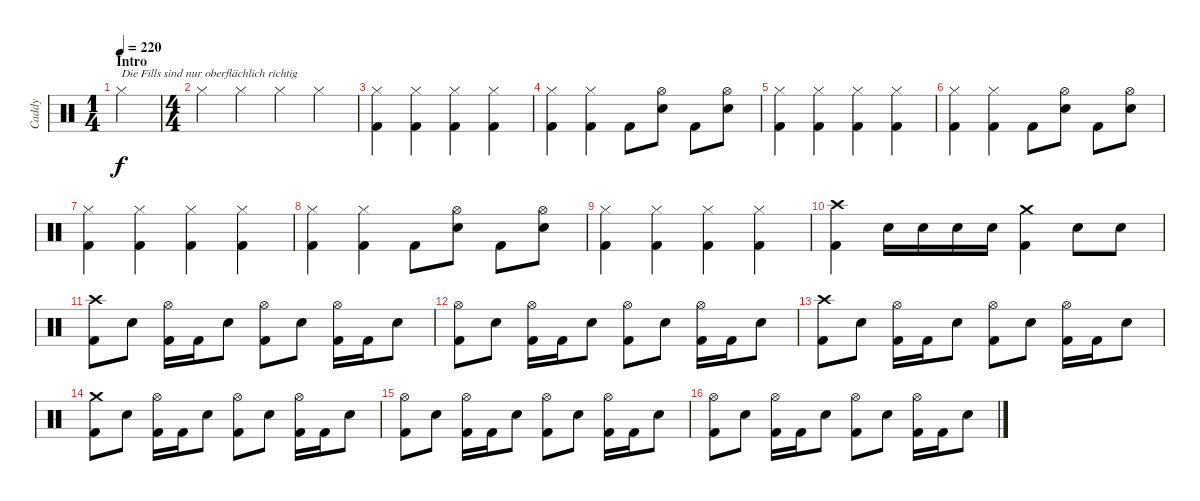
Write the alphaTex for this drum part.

\track ("Caddy" "Caddy") {instrument percussion}
\staff {score}
\articulation defaults
\ts (1 4)
\section ("" "Intro")
\tempo 220
\clef neutral
\ks c "Hi-Hat (closed)".4{txt "Die Fills sind nur oberflächlich richtig" dy f}
|
\ts (4 4)
"Hi-Hat (closed)".4 "Hi-Hat (closed)".4 "Hi-Hat (closed)".4 "Hi-Hat (closed)".4 |
("Hi-Hat (closed)" "Kick (hit) 2").4 ("Hi-Hat (closed)" "Kick (hit) 2").4 ("Hi-Hat (closed)" "Kick (hit) 2").4 ("Hi-Hat (closed)" "Kick (hit) 2").4 |
("Hi-Hat (closed)" "Kick (hit) 2").4 ("Hi-Hat (closed)" "Kick (hit) 2").4 "Kick (hit) 2".8 ("Hi-Hat (open)" "Electric Snare (hit)").8 "Kick (hit) 2".8 ("Hi-Hat (open)" "Electric Snare (hit)").8 |
("Hi-Hat (closed)" "Kick (hit) 2").4 ("Hi-Hat (closed)" "Kick (hit) 2").4 ("Hi-Hat (closed)" "Kick (hit) 2").4 ("Hi-Hat (closed)" "Kick (hit) 2").4 |
("Hi-Hat (closed)" "Kick (hit) 2").4 ("Hi-Hat (closed)" "Kick (hit) 2").4 "Kick (hit) 2".8 ("Hi-Hat (open)" "Electric Snare (hit)").8 "Kick (hit) 2".8 ("Hi-Hat (open)" "Electric Snare (hit)").8 |
("Hi-Hat (closed)" "Kick (hit) 2").4 ("Hi-Hat (closed)" "Kick (hit) 2").4 ("Hi-Hat (closed)" "Kick (hit) 2").4 ("Hi-Hat (closed)" "Kick (hit) 2").4 |
("Hi-Hat (closed)" "Kick (hit) 2").4 ("Hi-Hat (closed)" "Kick (hit) 2").4 "Kick (hit) 2".8 ("Hi-Hat (open)" "Electric Snare (hit)").8 "Kick (hit) 2".8 ("Hi-Hat (open)" "Electric Snare (hit)").8 |
("Hi-Hat (closed)" "Kick (hit) 2").4 ("Hi-Hat (closed)" "Kick (hit) 2").4 ("Hi-Hat (closed)" "Kick (hit) 2").4 ("Hi-Hat (closed)" "Kick (hit) 2").4 |
("Crash high (hit)" "Kick (hit) 2").4 "Electric Snare (hit)".16 "Electric Snare (hit)".16 "Electric Snare (hit)".16 "Electric Snare (hit)".16 ("Crash medium (hit)" "Kick (hit) 2").4 "Electric Snare (hit)".8 "Electric Snare (hit)".8 |
("Crash high (hit)" "Kick (hit) 2").8 "Electric Snare (hit)".8 ("Hi-Hat (open)" "Kick (hit) 2").16 "Kick (hit) 2".16 "Electric Snare (hit)".8 ("Hi-Hat (open)" "Kick (hit) 2").8 "Electric Snare (hit)".8 ("Hi-Hat (open)" "Kick (hit) 2").16 "Kick (hit) 2".16 "Electric Snare (hit)".8 |
("Hi-Hat (open)" "Kick (hit) 2").8 "Electric Snare (hit)".8 ("Hi-Hat (open)" "Kick (hit) 2").16 "Kick (hit) 2".16 "Electric Snare (hit)".8 ("Hi-Hat (open)" "Kick (hit) 2").8 "Electric Snare (hit)".8 ("Hi-Hat (open)" "Kick (hit) 2").16 "Kick (hit) 2".16 "Electric Snare (hit)".8 |
("Crash high (hit)" "Kick (hit) 2").8 "Electric Snare (hit)".8 ("Hi-Hat (open)" "Kick (hit) 2").16 "Kick (hit) 2".16 "Electric Snare (hit)".8 ("Hi-Hat (open)" "Kick (hit) 2").8 "Electric Snare (hit)".8 ("Hi-Hat (open)" "Kick (hit) 2").16 "Kick (hit) 2".16 "Electric Snare (hit)".8 |
("Crash medium (hit)" "Kick (hit) 2").8 "Electric Snare (hit)".8 ("Hi-Hat (open)" "Kick (hit) 2").16 "Kick (hit) 2".16 "Electric Snare (hit)".8 ("Hi-Hat (open)" "Kick (hit) 2").8 "Electric Snare (hit)".8 ("Hi-Hat (open)" "Kick (hit) 2").16 "Kick (hit) 2".16 "Electric Snare (hit)".8 |
("Hi-Hat (open)" "Kick (hit) 2").8 "Electric Snare (hit)".8 ("Hi-Hat (open)" "Kick (hit) 2").16 "Kick (hit) 2".16 "Electric Snare (hit)".8 ("Hi-Hat (open)" "Kick (hit) 2").8 "Electric Snare (hit)".8 ("Hi-Hat (open)" "Kick (hit) 2").16 "Kick (hit) 2".16 "Electric Snare (hit)".8 |
("Hi-Hat (open)" "Kick (hit) 2").8 "Electric Snare (hit)".8 ("Hi-Hat (open)" "Kick (hit) 2").16 "Kick (hit) 2".16 "Electric Snare (hit)".8 ("Hi-Hat (open)" "Kick (hit) 2").8 "Electric Snare (hit)".8 ("Hi-Hat (open)" "Kick (hit) 2").16 "Kick (hit) 2".16 "Electric Snare (hit)".8
